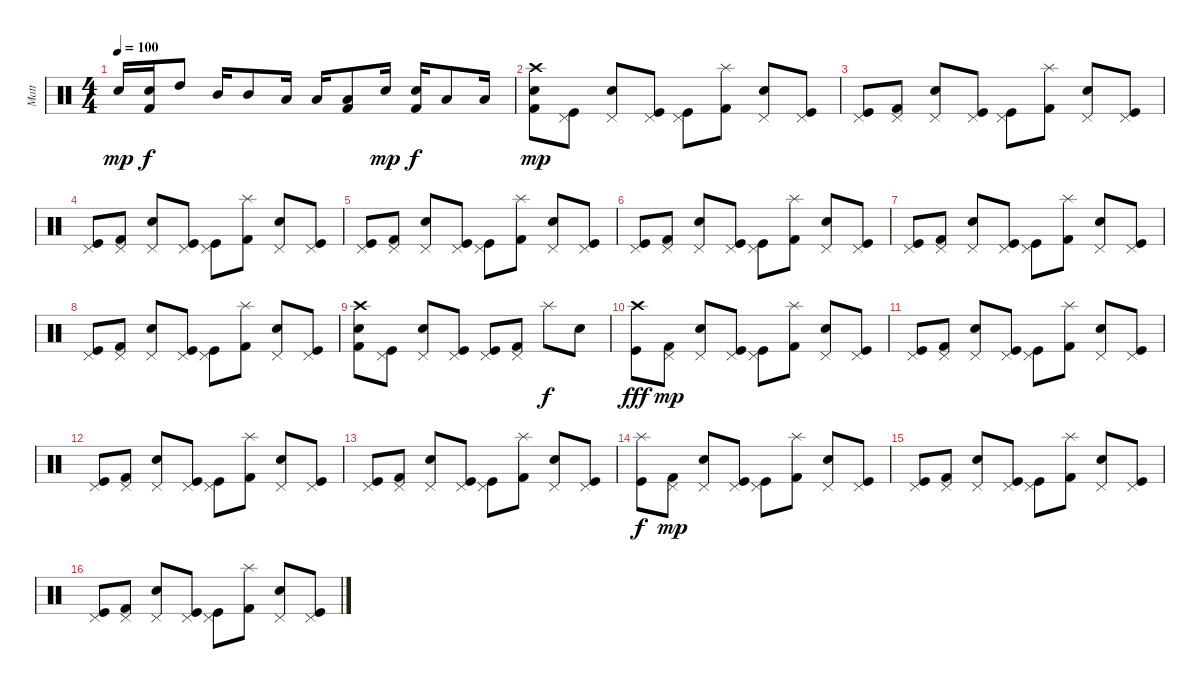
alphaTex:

\track ("Matt" "Matt") {instrument percussion}
\staff {score}
\articulation defaults
\ts (4 4)
\tempo 100
\clef neutral
\ks c "Electric Snare (hit)"{tr (40 32)}.16{dy mp}
("Electric Snare (hit)" "Kick (hit) 2").16{dy f} "High Tom (hit)".8 "Mid Tom (hit)".16 "Mid Tom (hit)".8 "Low Tom (hit)".16 "Low Tom (hit)".16 ("Kick (hit) 2" "Low Floor Tom (hit)").8 "Electric Snare (hit)"{tr (40 32)}.16{dy mp} ("Electric Snare (hit)" "Kick (hit) 2").16{dy f} "Low Tom (hit)".8 "Low Tom (hit)".16 |
("Electric Snare (hit)" "Kick (hit) 2" "Crash high (hit)").8{dy mp} ("Kick (hit)" "Pedal Hi-Hat (hit)").8 ("Electric Snare (hit)" "Pedal Hi-Hat (hit)").8 ("Kick (hit)" "Pedal Hi-Hat (hit)").8 ("Kick (hit)" "Pedal Hi-Hat (hit)").8 ("Kick (hit) 2" "Splash (hit)").8 ("Electric Snare (hit)" "Pedal Hi-Hat (hit)").8 ("Kick (hit)" "Pedal Hi-Hat (hit)").8 |
("Kick (hit)" "Pedal Hi-Hat (hit)").8 ("Kick (hit) 2" "Pedal Hi-Hat (hit)").8 ("Electric Snare (hit)" "Pedal Hi-Hat (hit)").8 ("Kick (hit)" "Pedal Hi-Hat (hit)").8 ("Kick (hit)" "Pedal Hi-Hat (hit)").8 ("Kick (hit) 2" "Splash (hit)").8 ("Electric Snare (hit)" "Pedal Hi-Hat (hit)").8 ("Kick (hit)" "Pedal Hi-Hat (hit)").8 |
("Kick (hit)" "Pedal Hi-Hat (hit)").8 ("Kick (hit) 2" "Pedal Hi-Hat (hit)").8 ("Electric Snare (hit)" "Pedal Hi-Hat (hit)").8 ("Kick (hit)" "Pedal Hi-Hat (hit)").8 ("Kick (hit)" "Pedal Hi-Hat (hit)").8 ("Kick (hit) 2" "Splash (hit)").8 ("Electric Snare (hit)" "Pedal Hi-Hat (hit)").8 ("Kick (hit)" "Pedal Hi-Hat (hit)").8 |
("Kick (hit)" "Pedal Hi-Hat (hit)").8 ("Kick (hit) 2" "Pedal Hi-Hat (hit)").8 ("Electric Snare (hit)" "Pedal Hi-Hat (hit)").8 ("Kick (hit)" "Pedal Hi-Hat (hit)").8 ("Kick (hit)" "Pedal Hi-Hat (hit)").8 ("Kick (hit) 2" "Splash (hit)").8 ("Electric Snare (hit)" "Pedal Hi-Hat (hit)").8 ("Kick (hit)" "Pedal Hi-Hat (hit)").8 |
("Kick (hit)" "Pedal Hi-Hat (hit)").8 ("Kick (hit) 2" "Pedal Hi-Hat (hit)").8 ("Electric Snare (hit)" "Pedal Hi-Hat (hit)").8 ("Kick (hit)" "Pedal Hi-Hat (hit)").8 ("Kick (hit)" "Pedal Hi-Hat (hit)").8 ("Kick (hit) 2" "Splash (hit)").8 ("Electric Snare (hit)" "Pedal Hi-Hat (hit)").8 ("Kick (hit)" "Pedal Hi-Hat (hit)").8 |
("Kick (hit)" "Pedal Hi-Hat (hit)").8 ("Kick (hit) 2" "Pedal Hi-Hat (hit)").8 ("Electric Snare (hit)" "Pedal Hi-Hat (hit)").8 ("Kick (hit)" "Pedal Hi-Hat (hit)").8 ("Kick (hit)" "Pedal Hi-Hat (hit)").8 ("Kick (hit) 2" "Splash (hit)").8 ("Electric Snare (hit)" "Pedal Hi-Hat (hit)").8 ("Kick (hit)" "Pedal Hi-Hat (hit)").8 |
("Kick (hit)" "Pedal Hi-Hat (hit)").8 ("Kick (hit) 2" "Pedal Hi-Hat (hit)").8 ("Electric Snare (hit)" "Pedal Hi-Hat (hit)").8 ("Kick (hit)" "Pedal Hi-Hat (hit)").8 ("Kick (hit)" "Pedal Hi-Hat (hit)").8 ("Kick (hit) 2" "Splash (hit)").8 ("Electric Snare (hit)" "Pedal Hi-Hat (hit)").8 ("Kick (hit)" "Pedal Hi-Hat (hit)").8 |
("Electric Snare (hit)" "Kick (hit) 2" "Crash high (hit)").8 ("Kick (hit)" "Pedal Hi-Hat (hit)").8 ("Electric Snare (hit)" "Pedal Hi-Hat (hit)").8 ("Kick (hit)" "Pedal Hi-Hat (hit)").8 ("Kick (hit)" "Pedal Hi-Hat (hit)").8 ("Kick (hit) 2"{tr (36 16)} "Pedal Hi-Hat (hit)").8 "Splash (hit)".8{dy f} "Electric Snare (hit)"{tr (40 16)}.8 |
("Kick (hit)" "Crash high (hit)").8{dy fff} ("Kick (hit) 2" "Pedal Hi-Hat (hit)").8{dy mp} ("Electric Snare (hit)" "Pedal Hi-Hat (hit)").8 ("Kick (hit)" "Pedal Hi-Hat (hit)").8 ("Kick (hit)" "Pedal Hi-Hat (hit)").8 ("Kick (hit) 2" "Splash (hit)").8 ("Electric Snare (hit)" "Pedal Hi-Hat (hit)").8 ("Kick (hit)" "Pedal Hi-Hat (hit)").8 |
("Kick (hit)" "Pedal Hi-Hat (hit)").8 ("Kick (hit) 2" "Pedal Hi-Hat (hit)").8 ("Electric Snare (hit)" "Pedal Hi-Hat (hit)").8 ("Kick (hit)" "Pedal Hi-Hat (hit)").8 ("Kick (hit)" "Pedal Hi-Hat (hit)").8 ("Kick (hit) 2" "Splash (hit)").8 ("Electric Snare (hit)" "Pedal Hi-Hat (hit)").8 ("Kick (hit)" "Pedal Hi-Hat (hit)").8 |
("Kick (hit)" "Pedal Hi-Hat (hit)").8 ("Kick (hit) 2" "Pedal Hi-Hat (hit)").8 ("Electric Snare (hit)" "Pedal Hi-Hat (hit)").8 ("Kick (hit)" "Pedal Hi-Hat (hit)").8 ("Kick (hit)" "Pedal Hi-Hat (hit)").8 ("Kick (hit) 2" "Splash (hit)").8 ("Electric Snare (hit)" "Pedal Hi-Hat (hit)").8 ("Kick (hit)" "Pedal Hi-Hat (hit)").8 |
("Kick (hit)" "Pedal Hi-Hat (hit)").8 ("Kick (hit) 2" "Pedal Hi-Hat (hit)").8 ("Electric Snare (hit)" "Pedal Hi-Hat (hit)").8 ("Kick (hit)" "Pedal Hi-Hat (hit)").8 ("Kick (hit)" "Pedal Hi-Hat (hit)").8 ("Kick (hit) 2" "Splash (hit)").8 ("Electric Snare (hit)" "Pedal Hi-Hat (hit)").8 ("Kick (hit)" "Pedal Hi-Hat (hit)").8 |
("Kick (hit)" "Splash (hit)").8{dy f} ("Kick (hit) 2" "Pedal Hi-Hat (hit)").8{dy mp} ("Electric Snare (hit)" "Pedal Hi-Hat (hit)").8 ("Kick (hit)" "Pedal Hi-Hat (hit)").8 ("Kick (hit)" "Pedal Hi-Hat (hit)").8 ("Kick (hit) 2" "Splash (hit)").8 ("Electric Snare (hit)" "Pedal Hi-Hat (hit)").8 ("Kick (hit)" "Pedal Hi-Hat (hit)").8 |
("Kick (hit)" "Pedal Hi-Hat (hit)").8 ("Kick (hit) 2" "Pedal Hi-Hat (hit)").8 ("Electric Snare (hit)" "Pedal Hi-Hat (hit)").8 ("Kick (hit)" "Pedal Hi-Hat (hit)").8 ("Kick (hit)" "Pedal Hi-Hat (hit)").8 ("Kick (hit) 2" "Splash (hit)").8 ("Electric Snare (hit)" "Pedal Hi-Hat (hit)").8 ("Kick (hit)" "Pedal Hi-Hat (hit)").8 |
("Kick (hit)" "Pedal Hi-Hat (hit)").8 ("Kick (hit) 2" "Pedal Hi-Hat (hit)").8 ("Electric Snare (hit)" "Pedal Hi-Hat (hit)").8 ("Kick (hit)" "Pedal Hi-Hat (hit)").8 ("Kick (hit)" "Pedal Hi-Hat (hit)").8 ("Kick (hit) 2" "Splash (hit)").8 ("Electric Snare (hit)" "Pedal Hi-Hat (hit)").8 ("Kick (hit)" "Pedal Hi-Hat (hit)").8
